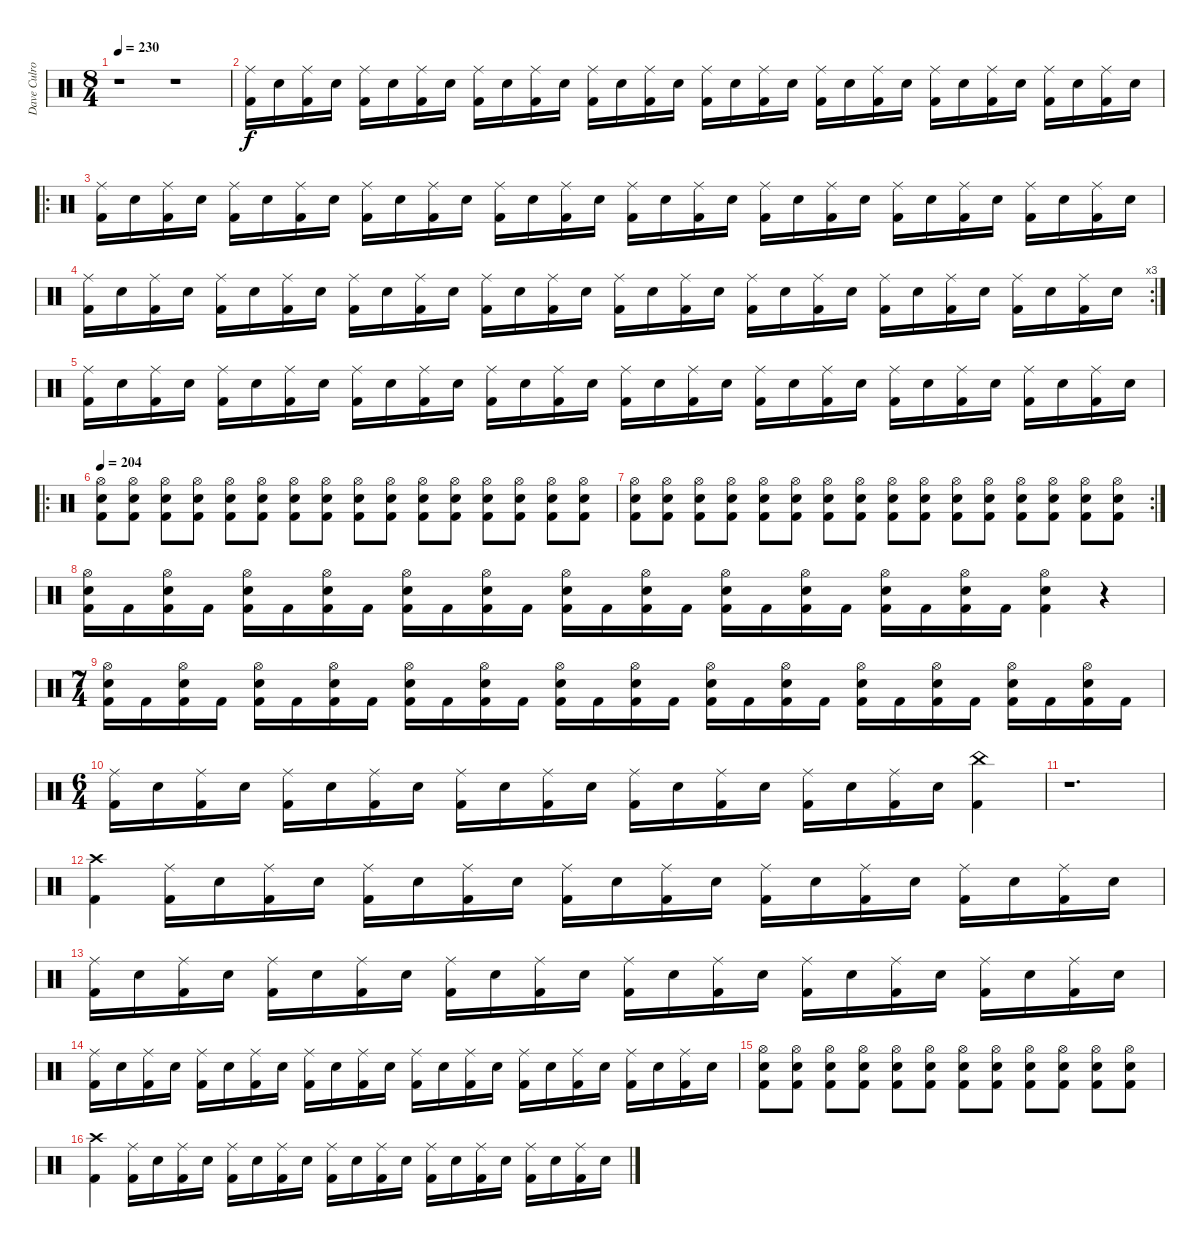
\track ("Dave Culross" "Dave Culro") {instrument percussion}
\staff {score}
\articulation defaults
\ts (8 4)
\tempo 230
\clef neutral
\ks c
r.1{dy f} r.1 |
("Ride (middle)" "Kick (hit) 2").16 "Electric Snare (hit)".16 ("Ride (middle)" "Kick (hit) 2").16 "Electric Snare (hit)".16 ("Ride (middle)" "Kick (hit) 2").16 "Electric Snare (hit)".16 ("Ride (middle)" "Kick (hit) 2").16 "Electric Snare (hit)".16 ("Ride (middle)" "Kick (hit) 2").16 "Electric Snare (hit)".16 ("Ride (middle)" "Kick (hit) 2").16 "Electric Snare (hit)".16 ("Ride (middle)" "Kick (hit) 2").16 "Electric Snare (hit)".16 ("Ride (middle)" "Kick (hit) 2").16 "Electric Snare (hit)".16 ("Ride (middle)" "Kick (hit) 2").16 "Electric Snare (hit)".16 ("Ride (middle)" "Kick (hit) 2").16 "Electric Snare (hit)".16 ("Ride (middle)" "Kick (hit) 2").16 "Electric Snare (hit)".16 ("Ride (middle)" "Kick (hit) 2").16 "Electric Snare (hit)".16 ("Ride (middle)" "Kick (hit) 2").16 "Electric Snare (hit)".16 ("Ride (middle)" "Kick (hit) 2").16 "Electric Snare (hit)".16 ("Ride (middle)" "Kick (hit) 2").16 "Electric Snare (hit)".16 ("Ride (middle)" "Kick (hit) 2").16 "Electric Snare (hit)".16 |
\ro
("Ride (middle)" "Kick (hit) 2").16 "Electric Snare (hit)".16 ("Ride (middle)" "Kick (hit) 2").16 "Electric Snare (hit)".16 ("Ride (middle)" "Kick (hit) 2").16 "Electric Snare (hit)".16 ("Ride (middle)" "Kick (hit) 2").16 "Electric Snare (hit)".16 ("Ride (middle)" "Kick (hit) 2").16 "Electric Snare (hit)".16 ("Ride (middle)" "Kick (hit) 2").16 "Electric Snare (hit)".16 ("Ride (middle)" "Kick (hit) 2").16 "Electric Snare (hit)".16 ("Ride (middle)" "Kick (hit) 2").16 "Electric Snare (hit)".16 ("Ride (middle)" "Kick (hit) 2").16 "Electric Snare (hit)".16 ("Ride (middle)" "Kick (hit) 2").16 "Electric Snare (hit)".16 ("Ride (middle)" "Kick (hit) 2").16 "Electric Snare (hit)".16 ("Ride (middle)" "Kick (hit) 2").16 "Electric Snare (hit)".16 ("Ride (middle)" "Kick (hit) 2").16 "Electric Snare (hit)".16 ("Ride (middle)" "Kick (hit) 2").16 "Electric Snare (hit)".16 ("Ride (middle)" "Kick (hit) 2").16 "Electric Snare (hit)".16 ("Ride (middle)" "Kick (hit) 2").16 "Electric Snare (hit)".16 |
\rc 3
("Ride (middle)" "Kick (hit) 2").16 "Electric Snare (hit)".16 ("Ride (middle)" "Kick (hit) 2").16 "Electric Snare (hit)".16 ("Ride (middle)" "Kick (hit) 2").16 "Electric Snare (hit)".16 ("Ride (middle)" "Kick (hit) 2").16 "Electric Snare (hit)".16 ("Ride (middle)" "Kick (hit) 2").16 "Electric Snare (hit)".16 ("Ride (middle)" "Kick (hit) 2").16 "Electric Snare (hit)".16 ("Ride (middle)" "Kick (hit) 2").16 "Electric Snare (hit)".16 ("Ride (middle)" "Kick (hit) 2").16 "Electric Snare (hit)".16 ("Ride (middle)" "Kick (hit) 2").16 "Electric Snare (hit)".16 ("Ride (middle)" "Kick (hit) 2").16 "Electric Snare (hit)".16 ("Ride (middle)" "Kick (hit) 2").16 "Electric Snare (hit)".16 ("Ride (middle)" "Kick (hit) 2").16 "Electric Snare (hit)".16 ("Ride (middle)" "Kick (hit) 2").16 "Electric Snare (hit)".16 ("Ride (middle)" "Kick (hit) 2").16 "Electric Snare (hit)".16 ("Ride (middle)" "Kick (hit) 2").16 "Electric Snare (hit)".16 ("Ride (middle)" "Kick (hit) 2").16 "Electric Snare (hit)".16 |
("Ride (middle)" "Kick (hit) 2").16 "Electric Snare (hit)".16 ("Ride (middle)" "Kick (hit) 2").16 "Electric Snare (hit)".16 ("Ride (middle)" "Kick (hit) 2").16 "Electric Snare (hit)".16 ("Ride (middle)" "Kick (hit) 2").16 "Electric Snare (hit)".16 ("Ride (middle)" "Kick (hit) 2").16 "Electric Snare (hit)".16 ("Ride (middle)" "Kick (hit) 2").16 "Electric Snare (hit)".16 ("Ride (middle)" "Kick (hit) 2").16 "Electric Snare (hit)".16 ("Ride (middle)" "Kick (hit) 2").16 "Electric Snare (hit)".16 ("Ride (middle)" "Kick (hit) 2").16 "Electric Snare (hit)".16 ("Ride (middle)" "Kick (hit) 2").16 "Electric Snare (hit)".16 ("Ride (middle)" "Kick (hit) 2").16 "Electric Snare (hit)".16 ("Ride (middle)" "Kick (hit) 2").16 "Electric Snare (hit)".16 ("Ride (middle)" "Kick (hit) 2").16 "Electric Snare (hit)".16 ("Ride (middle)" "Kick (hit) 2").16 "Electric Snare (hit)".16 ("Ride (middle)" "Kick (hit) 2").16 "Electric Snare (hit)".16 ("Ride (middle)" "Kick (hit) 2").16 "Electric Snare (hit)".16 |
\ro
\tempo 204
("Hi-Hat (open)" "Electric Snare (hit)" "Kick (hit) 2").8 ("Hi-Hat (open)" "Electric Snare (hit)" "Kick (hit) 2").8 ("Hi-Hat (open)" "Electric Snare (hit)" "Kick (hit) 2").8 ("Hi-Hat (open)" "Electric Snare (hit)" "Kick (hit) 2").8 ("Hi-Hat (open)" "Electric Snare (hit)" "Kick (hit) 2").8 ("Hi-Hat (open)" "Electric Snare (hit)" "Kick (hit) 2").8 ("Hi-Hat (open)" "Electric Snare (hit)" "Kick (hit) 2").8 ("Hi-Hat (open)" "Electric Snare (hit)" "Kick (hit) 2").8 ("Hi-Hat (open)" "Electric Snare (hit)" "Kick (hit) 2").8 ("Hi-Hat (open)" "Electric Snare (hit)" "Kick (hit) 2").8 ("Hi-Hat (open)" "Electric Snare (hit)" "Kick (hit) 2").8 ("Hi-Hat (open)" "Electric Snare (hit)" "Kick (hit) 2").8 ("Hi-Hat (open)" "Electric Snare (hit)" "Kick (hit) 2").8 ("Hi-Hat (open)" "Electric Snare (hit)" "Kick (hit) 2").8 ("Hi-Hat (open)" "Electric Snare (hit)" "Kick (hit) 2").8 ("Hi-Hat (open)" "Electric Snare (hit)" "Kick (hit) 2").8 |
\rc 2
("Hi-Hat (open)" "Electric Snare (hit)" "Kick (hit) 2").8 ("Hi-Hat (open)" "Electric Snare (hit)" "Kick (hit) 2").8 ("Hi-Hat (open)" "Electric Snare (hit)" "Kick (hit) 2").8 ("Hi-Hat (open)" "Electric Snare (hit)" "Kick (hit) 2").8 ("Hi-Hat (open)" "Electric Snare (hit)" "Kick (hit) 2").8 ("Hi-Hat (open)" "Electric Snare (hit)" "Kick (hit) 2").8 ("Hi-Hat (open)" "Electric Snare (hit)" "Kick (hit) 2").8 ("Hi-Hat (open)" "Electric Snare (hit)" "Kick (hit) 2").8 ("Hi-Hat (open)" "Electric Snare (hit)" "Kick (hit) 2").8 ("Hi-Hat (open)" "Electric Snare (hit)" "Kick (hit) 2").8 ("Hi-Hat (open)" "Electric Snare (hit)" "Kick (hit) 2").8 ("Hi-Hat (open)" "Electric Snare (hit)" "Kick (hit) 2").8 ("Hi-Hat (open)" "Electric Snare (hit)" "Kick (hit) 2").8 ("Hi-Hat (open)" "Electric Snare (hit)" "Kick (hit) 2").8 ("Hi-Hat (open)" "Electric Snare (hit)" "Kick (hit) 2").8 ("Hi-Hat (open)" "Electric Snare (hit)" "Kick (hit) 2").8 |
("Hi-Hat (open)" "Electric Snare (hit)" "Kick (hit) 2").16 "Kick (hit) 2".16 ("Hi-Hat (open)" "Electric Snare (hit)" "Kick (hit) 2").16 "Kick (hit) 2".16 ("Hi-Hat (open)" "Electric Snare (hit)" "Kick (hit) 2").16 "Kick (hit) 2".16 ("Hi-Hat (open)" "Electric Snare (hit)" "Kick (hit) 2").16 "Kick (hit) 2".16 ("Hi-Hat (open)" "Electric Snare (hit)" "Kick (hit) 2").16 "Kick (hit) 2".16 ("Hi-Hat (open)" "Electric Snare (hit)" "Kick (hit) 2").16 "Kick (hit) 2".16 ("Hi-Hat (open)" "Electric Snare (hit)" "Kick (hit) 2").16 "Kick (hit) 2".16 ("Hi-Hat (open)" "Electric Snare (hit)" "Kick (hit) 2").16 "Kick (hit) 2".16 ("Hi-Hat (open)" "Electric Snare (hit)" "Kick (hit) 2").16 "Kick (hit) 2".16 ("Hi-Hat (open)" "Electric Snare (hit)" "Kick (hit) 2").16 "Kick (hit) 2".16 ("Hi-Hat (open)" "Electric Snare (hit)" "Kick (hit) 2").16 "Kick (hit) 2".16 ("Hi-Hat (open)" "Electric Snare (hit)" "Kick (hit) 2").16 "Kick (hit) 2".16 ("Hi-Hat (open)" "Electric Snare (hit)" "Kick (hit) 2").4 r.4 |
\ts (7 4)
("Hi-Hat (open)" "Electric Snare (hit)" "Kick (hit) 2").16 "Kick (hit) 2".16 ("Hi-Hat (open)" "Electric Snare (hit)" "Kick (hit) 2").16 "Kick (hit) 2".16 ("Hi-Hat (open)" "Electric Snare (hit)" "Kick (hit) 2").16 "Kick (hit) 2".16 ("Hi-Hat (open)" "Electric Snare (hit)" "Kick (hit) 2").16 "Kick (hit) 2".16 ("Hi-Hat (open)" "Electric Snare (hit)" "Kick (hit) 2").16 "Kick (hit) 2".16 ("Hi-Hat (open)" "Electric Snare (hit)" "Kick (hit) 2").16 "Kick (hit) 2".16 ("Hi-Hat (open)" "Electric Snare (hit)" "Kick (hit) 2").16 "Kick (hit) 2".16 ("Hi-Hat (open)" "Electric Snare (hit)" "Kick (hit) 2").16 "Kick (hit) 2".16 ("Hi-Hat (open)" "Electric Snare (hit)" "Kick (hit) 2").16 "Kick (hit) 2".16 ("Hi-Hat (open)" "Electric Snare (hit)" "Kick (hit) 2").16 "Kick (hit) 2".16 ("Hi-Hat (open)" "Electric Snare (hit)" "Kick (hit) 2").16 "Kick (hit) 2".16 ("Hi-Hat (open)" "Electric Snare (hit)" "Kick (hit) 2").16 "Kick (hit) 2".16 ("Hi-Hat (open)" "Electric Snare (hit)" "Kick (hit) 2").16 "Kick (hit) 2".16 ("Hi-Hat (open)" "Electric Snare (hit)" "Kick (hit) 2").16 "Kick (hit) 2".16 |
\ts (6 4)
("Ride (middle)" "Kick (hit) 2").16 "Electric Snare (hit)".16 ("Ride (middle)" "Kick (hit) 2").16 "Electric Snare (hit)".16 ("Ride (middle)" "Kick (hit) 2").16 "Electric Snare (hit)".16 ("Ride (middle)" "Kick (hit) 2").16 "Electric Snare (hit)".16 ("Ride (middle)" "Kick (hit) 2").16 "Electric Snare (hit)".16 ("Ride (middle)" "Kick (hit) 2").16 "Electric Snare (hit)".16 ("Ride (middle)" "Kick (hit) 2").16 "Electric Snare (hit)".16 ("Ride (middle)" "Kick (hit) 2").16 "Electric Snare (hit)".16 ("Ride (middle)" "Kick (hit) 2").16 "Electric Snare (hit)".16 ("Ride (middle)" "Kick (hit) 2").16 "Electric Snare (hit)".16 ("China (hit)" "Kick (hit) 2").4 |
r.1{d} |
("Crash high (hit)" "Kick (hit) 2").4 ("Ride (middle)" "Kick (hit) 2").16 "Electric Snare (hit)".16 ("Ride (middle)" "Kick (hit) 2").16 "Electric Snare (hit)".16 ("Ride (middle)" "Kick (hit) 2").16 "Electric Snare (hit)".16 ("Ride (middle)" "Kick (hit) 2").16 "Electric Snare (hit)".16 ("Ride (middle)" "Kick (hit) 2").16 "Electric Snare (hit)".16 ("Ride (middle)" "Kick (hit) 2").16 "Electric Snare (hit)".16 ("Ride (middle)" "Kick (hit) 2").16 "Electric Snare (hit)".16 ("Ride (middle)" "Kick (hit) 2").16 "Electric Snare (hit)".16 ("Ride (middle)" "Kick (hit) 2").16 "Electric Snare (hit)".16 ("Ride (middle)" "Kick (hit) 2").16 "Electric Snare (hit)".16 |
("Ride (middle)" "Kick (hit) 2").16 "Electric Snare (hit)".16 ("Ride (middle)" "Kick (hit) 2").16 "Electric Snare (hit)".16 ("Ride (middle)" "Kick (hit) 2").16 "Electric Snare (hit)".16 ("Ride (middle)" "Kick (hit) 2").16 "Electric Snare (hit)".16 ("Ride (middle)" "Kick (hit) 2").16 "Electric Snare (hit)".16 ("Ride (middle)" "Kick (hit) 2").16 "Electric Snare (hit)".16 ("Ride (middle)" "Kick (hit) 2").16 "Electric Snare (hit)".16 ("Ride (middle)" "Kick (hit) 2").16 "Electric Snare (hit)".16 ("Ride (middle)" "Kick (hit) 2").16 "Electric Snare (hit)".16 ("Ride (middle)" "Kick (hit) 2").16 "Electric Snare (hit)".16 ("Ride (middle)" "Kick (hit) 2").16 "Electric Snare (hit)".16 ("Ride (middle)" "Kick (hit) 2").16 "Electric Snare (hit)".16 |
("Ride (middle)" "Kick (hit) 2").16 "Electric Snare (hit)".16 ("Ride (middle)" "Kick (hit) 2").16 "Electric Snare (hit)".16 ("Ride (middle)" "Kick (hit) 2").16 "Electric Snare (hit)".16 ("Ride (middle)" "Kick (hit) 2").16 "Electric Snare (hit)".16 ("Ride (middle)" "Kick (hit) 2").16 "Electric Snare (hit)".16 ("Ride (middle)" "Kick (hit) 2").16 "Electric Snare (hit)".16 ("Ride (middle)" "Kick (hit) 2").16 "Electric Snare (hit)".16 ("Ride (middle)" "Kick (hit) 2").16 "Electric Snare (hit)".16 ("Ride (middle)" "Kick (hit) 2").16 "Electric Snare (hit)".16 ("Ride (middle)" "Kick (hit) 2").16 "Electric Snare (hit)".16 ("Ride (middle)" "Kick (hit) 2").16 "Electric Snare (hit)".16 ("Ride (middle)" "Kick (hit) 2").16 "Electric Snare (hit)".16 |
("Hi-Hat (open)" "Electric Snare (hit)" "Kick (hit) 2").8 ("Hi-Hat (open)" "Electric Snare (hit)" "Kick (hit) 2").8 ("Hi-Hat (open)" "Electric Snare (hit)" "Kick (hit) 2").8 ("Hi-Hat (open)" "Electric Snare (hit)" "Kick (hit) 2").8 ("Hi-Hat (open)" "Electric Snare (hit)" "Kick (hit) 2").8 ("Hi-Hat (open)" "Electric Snare (hit)" "Kick (hit) 2").8 ("Hi-Hat (open)" "Electric Snare (hit)" "Kick (hit) 2").8 ("Hi-Hat (open)" "Electric Snare (hit)" "Kick (hit) 2").8 ("Hi-Hat (open)" "Electric Snare (hit)" "Kick (hit) 2").8 ("Hi-Hat (open)" "Electric Snare (hit)" "Kick (hit) 2").8 ("Hi-Hat (open)" "Electric Snare (hit)" "Kick (hit) 2").8 ("Hi-Hat (open)" "Electric Snare (hit)" "Kick (hit) 2").8 |
("Crash high (hit)" "Kick (hit) 2").4 ("Ride (middle)" "Kick (hit) 2").16 "Electric Snare (hit)".16 ("Ride (middle)" "Kick (hit) 2").16 "Electric Snare (hit)".16 ("Ride (middle)" "Kick (hit) 2").16 "Electric Snare (hit)".16 ("Ride (middle)" "Kick (hit) 2").16 "Electric Snare (hit)".16 ("Ride (middle)" "Kick (hit) 2").16 "Electric Snare (hit)".16 ("Ride (middle)" "Kick (hit) 2").16 "Electric Snare (hit)".16 ("Ride (middle)" "Kick (hit) 2").16 "Electric Snare (hit)".16 ("Ride (middle)" "Kick (hit) 2").16 "Electric Snare (hit)".16 ("Ride (middle)" "Kick (hit) 2").16 "Electric Snare (hit)".16 ("Ride (middle)" "Kick (hit) 2").16 "Electric Snare (hit)".16
